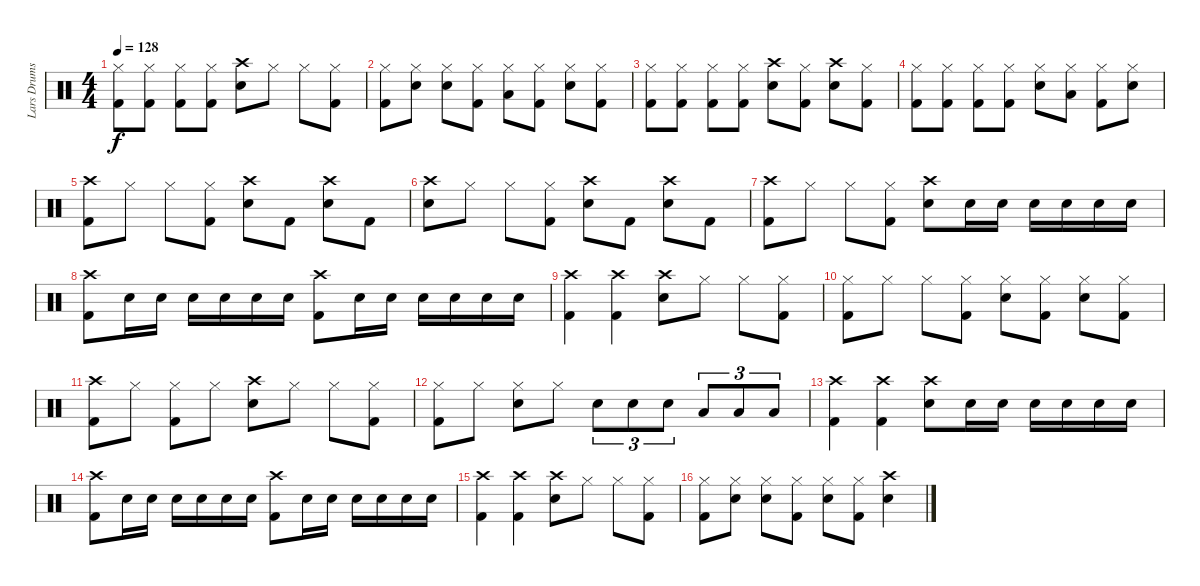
\track ("Lars Drums" "Lars Drums") {instrument percussion}
\staff {score}
\articulation defaults
\ts (4 4)
\tempo 128
\clef neutral
\ks c
("Hi-Hat (closed)" "Kick (hit) 2").8{dy f} ("Hi-Hat (closed)" "Kick (hit) 2").8 ("Hi-Hat (closed)" "Kick (hit) 2").8 ("Hi-Hat (closed)" "Kick (hit) 2").8 ("Crash high (hit)" "Electric Snare (hit)").8 "Hi-Hat (closed)".8 "Hi-Hat (closed)".8 ("Hi-Hat (closed)" "Kick (hit) 2").8 |
("Hi-Hat (closed)" "Kick (hit) 2").8 ("Hi-Hat (closed)" "Electric Snare (hit)").8 ("Hi-Hat (closed)" "Electric Snare (hit)").8 ("Hi-Hat (closed)" "Kick (hit) 2").8 ("Hi-Hat (closed)" "Low Floor Tom (hit)").8 ("Hi-Hat (closed)" "Kick (hit) 2").8 ("Hi-Hat (closed)" "Electric Snare (hit)").8 ("Hi-Hat (closed)" "Kick (hit) 2").8 |
("Hi-Hat (closed)" "Kick (hit) 2").8 ("Hi-Hat (closed)" "Kick (hit) 2").8 ("Hi-Hat (closed)" "Kick (hit) 2").8 ("Hi-Hat (closed)" "Kick (hit) 2").8 ("Crash high (hit)" "Electric Snare (hit)").8 ("Hi-Hat (closed)" "Kick (hit) 2").8 ("Crash high (hit)" "Electric Snare (hit)").8 ("Hi-Hat (closed)" "Kick (hit) 2").8 |
("Hi-Hat (closed)" "Kick (hit) 2").8 ("Hi-Hat (closed)" "Kick (hit) 2").8 ("Hi-Hat (closed)" "Kick (hit) 2").8 ("Hi-Hat (closed)" "Kick (hit) 2").8 ("Hi-Hat (closed)" "Electric Snare (hit)").8 ("Hi-Hat (closed)" "Low Floor Tom (hit)").8 ("Hi-Hat (closed)" "Kick (hit) 2").8 ("Hi-Hat (closed)" "Electric Snare (hit)").8 |
("Crash high (hit)" "Kick (hit) 2").8 "Hi-Hat (closed)".8 "Hi-Hat (closed)".8 ("Hi-Hat (closed)" "Kick (hit) 2").8 ("Crash high (hit)" "Electric Snare (hit)").8 "Kick (hit) 2".8 ("Crash high (hit)" "Electric Snare (hit)").8 "Kick (hit) 2".8 |
("Crash high (hit)" "Electric Snare (hit)").8 "Hi-Hat (closed)".8 "Hi-Hat (closed)".8 ("Hi-Hat (closed)" "Kick (hit) 2").8 ("Crash high (hit)" "Electric Snare (hit)").8 "Kick (hit) 2".8 ("Crash high (hit)" "Electric Snare (hit)").8 "Kick (hit) 2".8 |
("Crash high (hit)" "Kick (hit) 2").8 "Hi-Hat (closed)".8 "Hi-Hat (closed)".8 ("Hi-Hat (closed)" "Kick (hit) 2").8 ("Crash high (hit)" "Electric Snare (hit)").8 "Electric Snare (hit)".16 "Electric Snare (hit)".16 "Electric Snare (hit)".16 "Electric Snare (hit)".16 "Electric Snare (hit)".16 "Electric Snare (hit)".16 |
("Crash high (hit)" "Kick (hit) 2").8 "Electric Snare (hit)".16 "Electric Snare (hit)".16 "Electric Snare (hit)".16 "Electric Snare (hit)".16 "Electric Snare (hit)".16 "Electric Snare (hit)".16 ("Crash high (hit)" "Kick (hit) 2").8 "Electric Snare (hit)".16 "Electric Snare (hit)".16 "Electric Snare (hit)".16 "Electric Snare (hit)".16 "Electric Snare (hit)".16 "Electric Snare (hit)".16 |
("Crash high (hit)" "Kick (hit) 2").4 ("Crash high (hit)" "Kick (hit) 2").4 ("Crash high (hit)" "Electric Snare (hit)").8 "Hi-Hat (closed)".8 "Hi-Hat (closed)".8 ("Hi-Hat (closed)" "Kick (hit) 2").8 |
("Hi-Hat (closed)" "Kick (hit) 2").8 "Hi-Hat (closed)".8 "Hi-Hat (closed)".8 ("Hi-Hat (closed)" "Kick (hit) 2").8 ("Hi-Hat (closed)" "Electric Snare (hit)").8 ("Hi-Hat (closed)" "Kick (hit) 2").8 ("Hi-Hat (closed)" "Electric Snare (hit)").8 ("Hi-Hat (closed)" "Kick (hit) 2").8 |
("Crash high (hit)" "Kick (hit) 2").8 "Hi-Hat (closed)".8 ("Hi-Hat (closed)" "Kick (hit) 2").8 "Hi-Hat (closed)".8 ("Crash high (hit)" "Electric Snare (hit)").8 "Hi-Hat (closed)".8 "Hi-Hat (closed)".8 ("Hi-Hat (closed)" "Kick (hit) 2").8 |
("Hi-Hat (closed)" "Kick (hit) 2").8 "Hi-Hat (closed)".8 ("Hi-Hat (closed)" "Electric Snare (hit)").8 "Hi-Hat (closed)".8 "Electric Snare (hit)".8{tu (3 2)} "Electric Snare (hit)".8{tu (3 2)} "Electric Snare (hit)".8{tu (3 2)} "Low Floor Tom (hit)".8{tu (3 2)} "Low Floor Tom (hit)".8{tu (3 2)} "Low Floor Tom (hit)".8{tu (3 2)} |
("Crash high (hit)" "Kick (hit) 2").4 ("Crash high (hit)" "Kick (hit) 2").4 ("Crash high (hit)" "Electric Snare (hit)").8 "Electric Snare (hit)".16 "Electric Snare (hit)".16 "Electric Snare (hit)".16 "Electric Snare (hit)".16 "Electric Snare (hit)".16 "Electric Snare (hit)".16 |
("Crash high (hit)" "Kick (hit) 2").8 "Electric Snare (hit)".16 "Electric Snare (hit)".16 "Electric Snare (hit)".16 "Electric Snare (hit)".16 "Electric Snare (hit)".16 "Electric Snare (hit)".16 ("Crash high (hit)" "Kick (hit) 2").8 "Electric Snare (hit)".16 "Electric Snare (hit)".16 "Electric Snare (hit)".16 "Electric Snare (hit)".16 "Electric Snare (hit)".16 "Electric Snare (hit)".16 |
("Crash high (hit)" "Kick (hit) 2").4 ("Crash high (hit)" "Kick (hit) 2").4 ("Crash high (hit)" "Electric Snare (hit)").8 "Hi-Hat (closed)".8 "Hi-Hat (closed)".8 ("Hi-Hat (closed)" "Kick (hit) 2").8 |
("Hi-Hat (closed)" "Kick (hit) 2").8 ("Hi-Hat (closed)" "Electric Snare (hit)").8 ("Hi-Hat (closed)" "Electric Snare (hit)").8 ("Hi-Hat (closed)" "Kick (hit) 2").8 ("Hi-Hat (closed)" "Electric Snare (hit)").8 ("Hi-Hat (closed)" "Kick (hit) 2").8 ("Crash high (hit)" "Electric Snare (hit)").4
